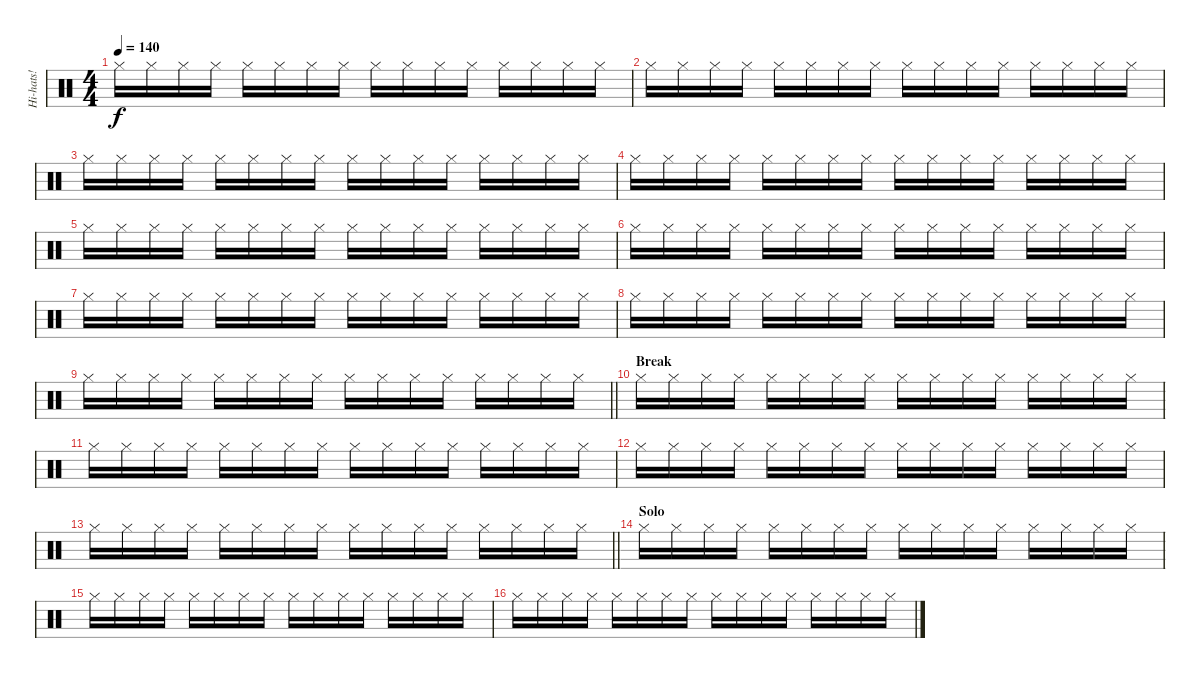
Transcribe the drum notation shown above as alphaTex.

\track ("Hi-hats!" "Hi-hats!") {instrument percussion}
\staff {score}
\articulation defaults
\ts (4 4)
\tempo 140
\clef neutral
\ks c "Hi-Hat (closed)".16{dy f} "Hi-Hat (closed)".16 "Hi-Hat (closed)".16 "Hi-Hat (closed)".16 "Hi-Hat (closed)".16 "Hi-Hat (closed)".16 "Hi-Hat (closed)".16 "Hi-Hat (closed)".16 "Hi-Hat (closed)".16 "Hi-Hat (closed)".16 "Hi-Hat (closed)".16 "Hi-Hat (closed)".16 "Hi-Hat (closed)".16 "Hi-Hat (closed)".16 "Hi-Hat (closed)".16 "Hi-Hat (closed)".16
|
"Hi-Hat (closed)".16 "Hi-Hat (closed)".16 "Hi-Hat (closed)".16 "Hi-Hat (closed)".16 "Hi-Hat (closed)".16 "Hi-Hat (closed)".16 "Hi-Hat (closed)".16 "Hi-Hat (closed)".16 "Hi-Hat (closed)".16 "Hi-Hat (closed)".16 "Hi-Hat (closed)".16 "Hi-Hat (closed)".16 "Hi-Hat (closed)".16 "Hi-Hat (closed)".16 "Hi-Hat (closed)".16 "Hi-Hat (closed)".16 |
"Hi-Hat (closed)".16 "Hi-Hat (closed)".16 "Hi-Hat (closed)".16 "Hi-Hat (closed)".16 "Hi-Hat (closed)".16 "Hi-Hat (closed)".16 "Hi-Hat (closed)".16 "Hi-Hat (closed)".16 "Hi-Hat (closed)".16 "Hi-Hat (closed)".16 "Hi-Hat (closed)".16 "Hi-Hat (closed)".16 "Hi-Hat (closed)".16 "Hi-Hat (closed)".16 "Hi-Hat (closed)".16 "Hi-Hat (closed)".16 |
"Hi-Hat (closed)".16 "Hi-Hat (closed)".16 "Hi-Hat (closed)".16 "Hi-Hat (closed)".16 "Hi-Hat (closed)".16 "Hi-Hat (closed)".16 "Hi-Hat (closed)".16 "Hi-Hat (closed)".16 "Hi-Hat (closed)".16 "Hi-Hat (closed)".16 "Hi-Hat (closed)".16 "Hi-Hat (closed)".16 "Hi-Hat (closed)".16 "Hi-Hat (closed)".16 "Hi-Hat (closed)".16 "Hi-Hat (closed)".16 |
"Hi-Hat (closed)".16 "Hi-Hat (closed)".16 "Hi-Hat (closed)".16 "Hi-Hat (closed)".16 "Hi-Hat (closed)".16 "Hi-Hat (closed)".16 "Hi-Hat (closed)".16 "Hi-Hat (closed)".16 "Hi-Hat (closed)".16 "Hi-Hat (closed)".16 "Hi-Hat (closed)".16 "Hi-Hat (closed)".16 "Hi-Hat (closed)".16 "Hi-Hat (closed)".16 "Hi-Hat (closed)".16 "Hi-Hat (closed)".16 |
"Hi-Hat (closed)".16 "Hi-Hat (closed)".16 "Hi-Hat (closed)".16 "Hi-Hat (closed)".16 "Hi-Hat (closed)".16 "Hi-Hat (closed)".16 "Hi-Hat (closed)".16 "Hi-Hat (closed)".16 "Hi-Hat (closed)".16 "Hi-Hat (closed)".16 "Hi-Hat (closed)".16 "Hi-Hat (closed)".16 "Hi-Hat (closed)".16 "Hi-Hat (closed)".16 "Hi-Hat (closed)".16 "Hi-Hat (closed)".16 |
"Hi-Hat (closed)".16 "Hi-Hat (closed)".16 "Hi-Hat (closed)".16 "Hi-Hat (closed)".16 "Hi-Hat (closed)".16 "Hi-Hat (closed)".16 "Hi-Hat (closed)".16 "Hi-Hat (closed)".16 "Hi-Hat (closed)".16 "Hi-Hat (closed)".16 "Hi-Hat (closed)".16 "Hi-Hat (closed)".16 "Hi-Hat (closed)".16 "Hi-Hat (closed)".16 "Hi-Hat (closed)".16 "Hi-Hat (closed)".16 |
"Hi-Hat (closed)".16 "Hi-Hat (closed)".16 "Hi-Hat (closed)".16 "Hi-Hat (closed)".16 "Hi-Hat (closed)".16 "Hi-Hat (closed)".16 "Hi-Hat (closed)".16 "Hi-Hat (closed)".16 "Hi-Hat (closed)".16 "Hi-Hat (closed)".16 "Hi-Hat (closed)".16 "Hi-Hat (closed)".16 "Hi-Hat (closed)".16 "Hi-Hat (closed)".16 "Hi-Hat (closed)".16 "Hi-Hat (closed)".16 |
\barLineRight lightlight "Hi-Hat (closed)".16 "Hi-Hat (closed)".16 "Hi-Hat (closed)".16 "Hi-Hat (closed)".16 "Hi-Hat (closed)".16 "Hi-Hat (closed)".16 "Hi-Hat (closed)".16 "Hi-Hat (closed)".16 "Hi-Hat (closed)".16 "Hi-Hat (closed)".16 "Hi-Hat (closed)".16 "Hi-Hat (closed)".16 "Hi-Hat (closed)".16 "Hi-Hat (closed)".16 "Hi-Hat (closed)".16 "Hi-Hat (closed)".16
|
\section ("" "Break")
"Hi-Hat (closed)".16 "Hi-Hat (closed)".16 "Hi-Hat (closed)".16 "Hi-Hat (closed)".16 "Hi-Hat (closed)".16 "Hi-Hat (closed)".16 "Hi-Hat (closed)".16 "Hi-Hat (closed)".16 "Hi-Hat (closed)".16 "Hi-Hat (closed)".16 "Hi-Hat (closed)".16 "Hi-Hat (closed)".16 "Hi-Hat (closed)".16 "Hi-Hat (closed)".16 "Hi-Hat (closed)".16 "Hi-Hat (closed)".16 |
"Hi-Hat (closed)".16 "Hi-Hat (closed)".16 "Hi-Hat (closed)".16 "Hi-Hat (closed)".16 "Hi-Hat (closed)".16 "Hi-Hat (closed)".16 "Hi-Hat (closed)".16 "Hi-Hat (closed)".16 "Hi-Hat (closed)".16 "Hi-Hat (closed)".16 "Hi-Hat (closed)".16 "Hi-Hat (closed)".16 "Hi-Hat (closed)".16 "Hi-Hat (closed)".16 "Hi-Hat (closed)".16 "Hi-Hat (closed)".16 |
"Hi-Hat (closed)".16 "Hi-Hat (closed)".16 "Hi-Hat (closed)".16 "Hi-Hat (closed)".16 "Hi-Hat (closed)".16 "Hi-Hat (closed)".16 "Hi-Hat (closed)".16 "Hi-Hat (closed)".16 "Hi-Hat (closed)".16 "Hi-Hat (closed)".16 "Hi-Hat (closed)".16 "Hi-Hat (closed)".16 "Hi-Hat (closed)".16 "Hi-Hat (closed)".16 "Hi-Hat (closed)".16 "Hi-Hat (closed)".16 |
\barLineRight lightlight "Hi-Hat (closed)".16 "Hi-Hat (closed)".16 "Hi-Hat (closed)".16 "Hi-Hat (closed)".16 "Hi-Hat (closed)".16 "Hi-Hat (closed)".16 "Hi-Hat (closed)".16 "Hi-Hat (closed)".16 "Hi-Hat (closed)".16 "Hi-Hat (closed)".16 "Hi-Hat (closed)".16 "Hi-Hat (closed)".16 "Hi-Hat (closed)".16 "Hi-Hat (closed)".16 "Hi-Hat (closed)".16 "Hi-Hat (closed)".16
|
\section ("" "Solo")
"Hi-Hat (closed)".16 "Hi-Hat (closed)".16 "Hi-Hat (closed)".16 "Hi-Hat (closed)".16 "Hi-Hat (closed)".16 "Hi-Hat (closed)".16 "Hi-Hat (closed)".16 "Hi-Hat (closed)".16 "Hi-Hat (closed)".16 "Hi-Hat (closed)".16 "Hi-Hat (closed)".16 "Hi-Hat (closed)".16 "Hi-Hat (closed)".16 "Hi-Hat (closed)".16 "Hi-Hat (closed)".16 "Hi-Hat (closed)".16 |
"Hi-Hat (closed)".16 "Hi-Hat (closed)".16 "Hi-Hat (closed)".16 "Hi-Hat (closed)".16 "Hi-Hat (closed)".16 "Hi-Hat (closed)".16 "Hi-Hat (closed)".16 "Hi-Hat (closed)".16 "Hi-Hat (closed)".16 "Hi-Hat (closed)".16 "Hi-Hat (closed)".16 "Hi-Hat (closed)".16 "Hi-Hat (closed)".16 "Hi-Hat (closed)".16 "Hi-Hat (closed)".16 "Hi-Hat (closed)".16 |
"Hi-Hat (closed)".16 "Hi-Hat (closed)".16 "Hi-Hat (closed)".16 "Hi-Hat (closed)".16 "Hi-Hat (closed)".16 "Hi-Hat (closed)".16 "Hi-Hat (closed)".16 "Hi-Hat (closed)".16 "Hi-Hat (closed)".16 "Hi-Hat (closed)".16 "Hi-Hat (closed)".16 "Hi-Hat (closed)".16 "Hi-Hat (closed)".16 "Hi-Hat (closed)".16 "Hi-Hat (closed)".16 "Hi-Hat (closed)".16
